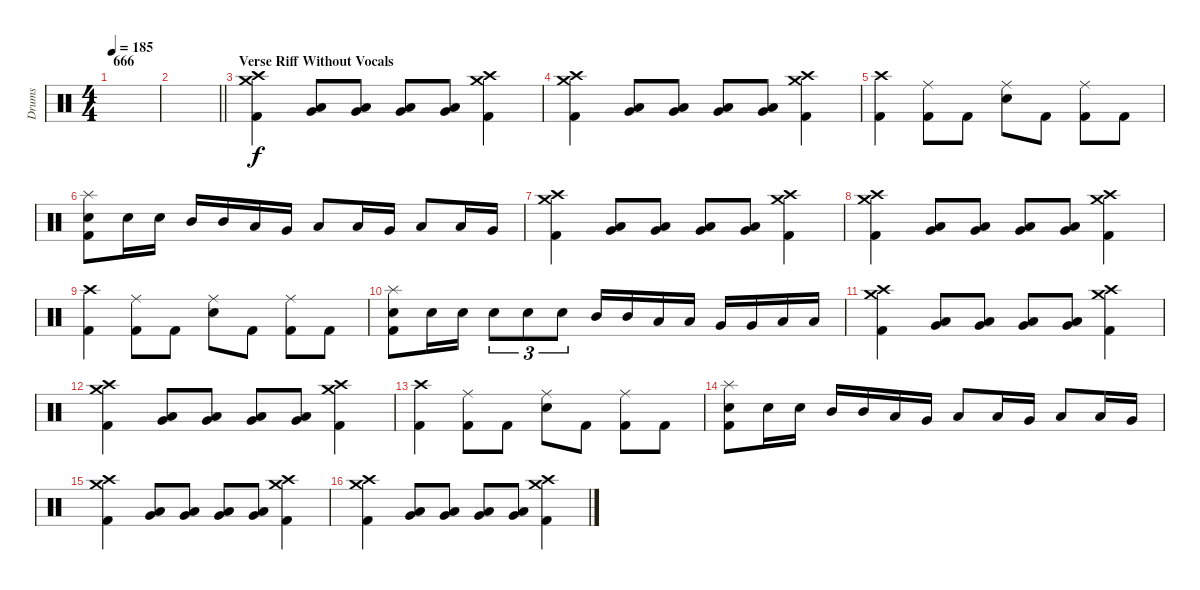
\track ("Drums" "Drums") {instrument percussion}
\staff {score}
\articulation defaults
\ts (4 4)
\section ("" "666")
\tempo 185
\clef neutral
\ks c
|
\barLineRight lightlight
|
\section ("" "Verse Riff Without Vocals")
("Crash high (hit)" "Crash medium (hit)" "Kick (hit) 2").4 ("Very Low Tom (hit)" "Low Tom (hit)").8 ("Very Low Tom (hit)" "Low Floor Tom (hit)").8 ("Very Low Tom (hit)" "Low Floor Tom (hit)").8 ("Very Low Tom (hit)" "Low Floor Tom (hit)").8 ("Crash high (hit)" "Crash medium (hit)" "Kick (hit) 2").4 |
("Crash high (hit)" "Crash medium (hit)" "Kick (hit) 2").4 ("Very Low Tom (hit)" "Low Tom (hit)").8 ("Very Low Tom (hit)" "Low Floor Tom (hit)").8 ("Very Low Tom (hit)" "Low Floor Tom (hit)").8 ("Very Low Tom (hit)" "Low Floor Tom (hit)").8 ("Crash high (hit)" "Crash medium (hit)" "Kick (hit) 2").4 |
("Crash high (hit)" "Kick (hit) 2").4 ("Ride (middle)" "Kick (hit) 2").8 "Kick (hit) 2".8 ("Ride (middle)" "Electric Snare (hit)").8 "Kick (hit) 2".8 ("Ride (middle)" "Kick (hit) 2").8 "Kick (hit) 2".8 |
("Splash (hit)" "Electric Snare (hit)" "Kick (hit) 2").8 "Electric Snare (hit)".16 "Electric Snare (hit)".16 "Mid Tom (hit)".16 "Mid Tom (hit)".16 "Low Tom (hit)".16 "Very Low Tom (hit)".16 "Low Tom (hit)".8 "Low Tom (hit)".16 "Very Low Tom (hit)".16 "Low Floor Tom (hit)".8 "Low Floor Tom (hit)".16 "Very Low Tom (hit)".16 |
("Crash high (hit)" "Crash medium (hit)" "Kick (hit) 2").4 ("Very Low Tom (hit)" "Low Tom (hit)").8 ("Very Low Tom (hit)" "Low Floor Tom (hit)").8 ("Very Low Tom (hit)" "Low Floor Tom (hit)").8 ("Very Low Tom (hit)" "Low Floor Tom (hit)").8 ("Crash high (hit)" "Crash medium (hit)" "Kick (hit) 2").4 |
("Crash high (hit)" "Crash medium (hit)" "Kick (hit) 2").4 ("Very Low Tom (hit)" "Low Tom (hit)").8 ("Very Low Tom (hit)" "Low Floor Tom (hit)").8 ("Very Low Tom (hit)" "Low Floor Tom (hit)").8 ("Very Low Tom (hit)" "Low Floor Tom (hit)").8 ("Crash high (hit)" "Crash medium (hit)" "Kick (hit) 2").4 |
("Crash high (hit)" "Kick (hit) 2").4 ("Ride (middle)" "Kick (hit) 2").8 "Kick (hit) 2".8 ("Ride (middle)" "Electric Snare (hit)").8 "Kick (hit) 2".8 ("Ride (middle)" "Kick (hit) 2").8 "Kick (hit) 2".8 |
("Splash (hit)" "Electric Snare (hit)" "Kick (hit) 2").8 "Electric Snare (hit)".16 "Electric Snare (hit)".16 "Electric Snare (hit)".8{tu (3 2)} "Electric Snare (hit)".8{tu (3 2)} "Electric Snare (hit)".8{tu (3 2)} "Mid Tom (hit)".16 "Mid Tom (hit)".16 "Low Tom (hit)".16 "Low Tom (hit)".16 "Very Low Tom (hit)".16 "Very Low Tom (hit)".16 "Low Floor Tom (hit)".16 "Low Floor Tom (hit)".16 |
("Crash high (hit)" "Crash medium (hit)" "Kick (hit) 2").4 ("Very Low Tom (hit)" "Low Tom (hit)").8 ("Very Low Tom (hit)" "Low Floor Tom (hit)").8 ("Very Low Tom (hit)" "Low Floor Tom (hit)").8 ("Very Low Tom (hit)" "Low Floor Tom (hit)").8 ("Crash high (hit)" "Crash medium (hit)" "Kick (hit) 2").4 |
("Crash high (hit)" "Crash medium (hit)" "Kick (hit) 2").4 ("Very Low Tom (hit)" "Low Tom (hit)").8 ("Very Low Tom (hit)" "Low Floor Tom (hit)").8 ("Very Low Tom (hit)" "Low Floor Tom (hit)").8 ("Very Low Tom (hit)" "Low Floor Tom (hit)").8 ("Crash high (hit)" "Crash medium (hit)" "Kick (hit) 2").4 |
("Crash high (hit)" "Kick (hit) 2").4 ("Ride (middle)" "Kick (hit) 2").8 "Kick (hit) 2".8 ("Ride (middle)" "Electric Snare (hit)").8 "Kick (hit) 2".8 ("Ride (middle)" "Kick (hit) 2").8 "Kick (hit) 2".8 |
("Splash (hit)" "Electric Snare (hit)" "Kick (hit) 2").8 "Electric Snare (hit)".16 "Electric Snare (hit)".16 "Mid Tom (hit)".16 "Mid Tom (hit)".16 "Low Tom (hit)".16 "Very Low Tom (hit)".16 "Low Tom (hit)".8 "Low Tom (hit)".16 "Very Low Tom (hit)".16 "Low Floor Tom (hit)".8 "Low Floor Tom (hit)".16 "Very Low Tom (hit)".16 |
("Crash high (hit)" "Crash medium (hit)" "Kick (hit) 2").4 ("Very Low Tom (hit)" "Low Tom (hit)").8 ("Very Low Tom (hit)" "Low Floor Tom (hit)").8 ("Very Low Tom (hit)" "Low Floor Tom (hit)").8 ("Very Low Tom (hit)" "Low Floor Tom (hit)").8 ("Crash high (hit)" "Crash medium (hit)" "Kick (hit) 2").4 |
("Crash high (hit)" "Crash medium (hit)" "Kick (hit) 2").4 ("Very Low Tom (hit)" "Low Tom (hit)").8 ("Very Low Tom (hit)" "Low Floor Tom (hit)").8 ("Very Low Tom (hit)" "Low Floor Tom (hit)").8 ("Very Low Tom (hit)" "Low Floor Tom (hit)").8 ("Crash high (hit)" "Crash medium (hit)" "Kick (hit) 2").4
